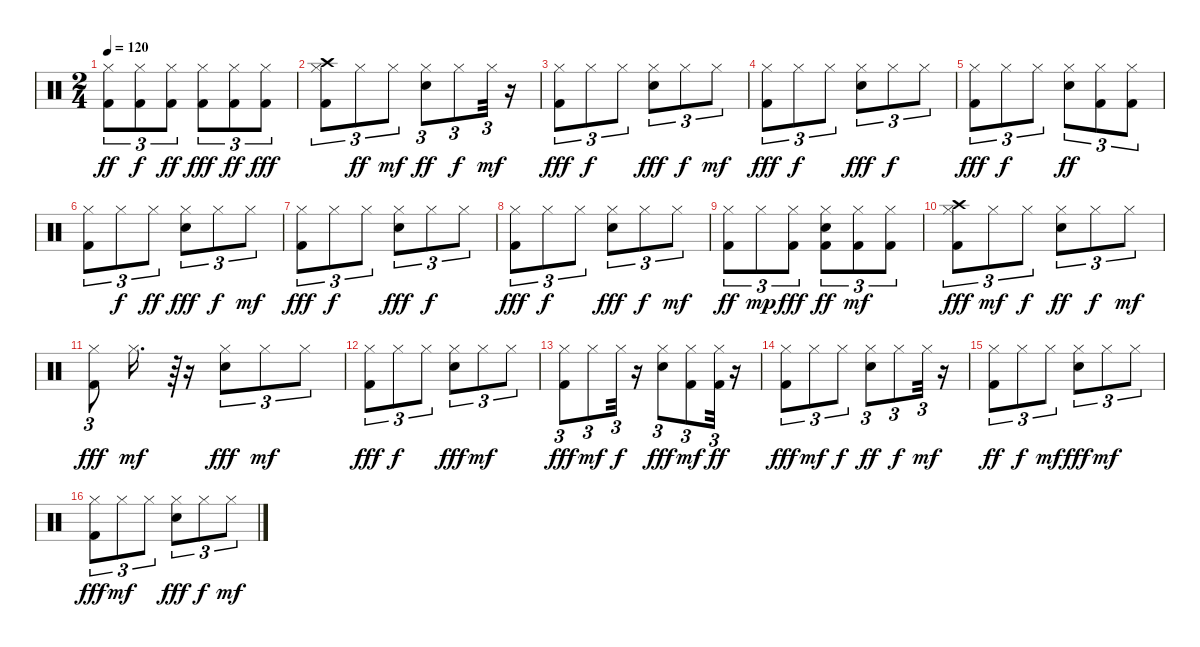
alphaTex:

\track "" {instrument percussion}
\staff {score}
\articulation defaults
\ts (2 4)
\tempo 120
\clef neutral
\ks c
("Kick (hit) 2" "Hi-Hat (closed)").8{tu (3 2) dy ff} ("Kick (hit) 2" "Hi-Hat (closed)").8{tu (3 2) dy f} ("Kick (hit) 2" "Hi-Hat (closed)").8{tu (3 2) dy ff} ("Kick (hit) 2" "Hi-Hat (closed)").8{tu (3 2) dy fff} ("Kick (hit) 2" "Hi-Hat (closed)").8{tu (3 2) dy ff} ("Hi-Hat (closed)" "Kick (hit) 2").8{tu (3 2) dy fff} |
("Crash high (hit)" "Hi-Hat (closed)" "Kick (hit) 2").8{tu (3 2)} "Hi-Hat (closed)".8{tu (3 2) dy ff} "Hi-Hat (closed)".8{tu (3 2) dy mf} ("Snare (hit) 2" "Hi-Hat (closed)").8{tu (3 2) dy ff} "Hi-Hat (closed)".8{tu (3 2) dy f} "Hi-Hat (closed)".32{tu (3 2) dy mf} r.16 |
("Hi-Hat (closed)" "Kick (hit) 2").8{tu (3 2) dy fff} "Hi-Hat (closed)".8{tu (3 2) dy f} "Hi-Hat (closed)".8{tu (3 2)} ("Snare (hit) 2" "Hi-Hat (closed)").8{tu (3 2) dy fff} "Hi-Hat (closed)".8{tu (3 2) dy f} "Hi-Hat (closed)".8{tu (3 2) dy mf} |
("Kick (hit) 2" "Hi-Hat (closed)").8{tu (3 2) dy fff} "Hi-Hat (closed)".8{tu (3 2) dy f} "Hi-Hat (closed)".8{tu (3 2)} ("Snare (hit) 2" "Hi-Hat (closed)").8{tu (3 2) dy fff} "Hi-Hat (closed)".8{tu (3 2) dy f} "Hi-Hat (closed)".8{tu (3 2)} |
("Hi-Hat (closed)" "Kick (hit) 2").8{tu (3 2) dy fff} "Hi-Hat (closed)".8{tu (3 2) dy f} "Hi-Hat (closed)".8{tu (3 2)} ("Snare (hit) 2" "Hi-Hat (closed)").8{tu (3 2) dy ff} ("Kick (hit) 2" "Hi-Hat (closed)").8{tu (3 2)} ("Hi-Hat (closed)" "Kick (hit) 2").8{tu (3 2)} |
("Kick (hit) 2" "Hi-Hat (closed)").8{tu (3 2)} "Hi-Hat (closed)".8{tu (3 2) dy f} "Hi-Hat (closed)".8{tu (3 2) dy ff} ("Snare (hit) 2" "Hi-Hat (closed)").8{tu (3 2) dy fff} "Hi-Hat (closed)".8{tu (3 2) dy f} "Hi-Hat (closed)".8{tu (3 2) dy mf} |
("Kick (hit) 2" "Hi-Hat (closed)").8{tu (3 2) dy fff} "Hi-Hat (closed)".8{tu (3 2) dy f} "Hi-Hat (closed)".8{tu (3 2)} ("Snare (hit) 2" "Hi-Hat (closed)").8{tu (3 2) dy fff} "Hi-Hat (closed)".8{tu (3 2) dy f} "Hi-Hat (closed)".8{tu (3 2)} |
("Kick (hit) 2" "Hi-Hat (closed)").8{tu (3 2) dy fff} "Hi-Hat (closed)".8{tu (3 2) dy f} "Hi-Hat (closed)".8{tu (3 2)} ("Snare (hit) 2" "Hi-Hat (closed)").8{tu (3 2) dy fff} "Hi-Hat (closed)".8{tu (3 2) dy f} "Hi-Hat (closed)".8{tu (3 2) dy mf} |
("Kick (hit) 2" "Hi-Hat (closed)").8{tu (3 2) dy ff} "Hi-Hat (closed)".8{tu (3 2) dy mp} ("Kick (hit) 2" "Hi-Hat (closed)").8{tu (3 2) dy fff} ("Snare (hit) 2" "Kick (hit) 2" "Hi-Hat (closed)").8{tu (3 2) dy ff} ("Kick (hit) 2" "Hi-Hat (closed)").8{tu (3 2) dy mf} ("Kick (hit) 2" "Hi-Hat (closed)").8{tu (3 2)} |
("Crash high (hit)" "Hi-Hat (closed)" "Kick (hit) 2").8{tu (3 2) dy fff} "Hi-Hat (closed)".8{tu (3 2) dy mf} "Hi-Hat (closed)".8{tu (3 2) dy f} ("Snare (hit) 2" "Hi-Hat (closed)").8{tu (3 2) dy ff} "Hi-Hat (closed)".8{tu (3 2) dy f} "Hi-Hat (closed)".8{tu (3 2) dy mf} |
("Kick (hit) 2" "Hi-Hat (closed)").8{tu (3 2) dy fff} "Hi-Hat (closed)".16{d dy mf} r.64{tu (3 2)} r.16 ("Snare (hit) 2" "Hi-Hat (closed)").8{tu (3 2) dy fff} "Hi-Hat (closed)".8{tu (3 2) dy mf} "Hi-Hat (closed)".8{tu (3 2)} |
("Kick (hit) 2" "Hi-Hat (closed)").8{tu (3 2) dy fff} "Hi-Hat (closed)".8{tu (3 2) dy f} "Hi-Hat (closed)".8{tu (3 2)} ("Hi-Hat (closed)" "Snare (hit) 2").8{tu (3 2) dy fff} "Hi-Hat (closed)".8{tu (3 2) dy mf} "Hi-Hat (closed)".8{tu (3 2)} |
("Kick (hit) 2" "Hi-Hat (closed)").8{tu (3 2) dy fff} "Hi-Hat (closed)".8{tu (3 2) dy mf} "Hi-Hat (closed)".32{tu (3 2) dy f} r.16 ("Snare (hit) 2" "Hi-Hat (closed)").8{tu (3 2) dy fff} ("Kick (hit) 2" "Hi-Hat (closed)").8{tu (3 2) dy mf} ("Hi-Hat (closed)" "Kick (hit) 2").32{tu (3 2) dy ff} r.16 |
("Kick (hit) 2" "Hi-Hat (closed)").8{tu (3 2) dy fff} "Hi-Hat (closed)".8{tu (3 2) dy mf} "Hi-Hat (closed)".8{tu (3 2) dy f} ("Snare (hit) 2" "Hi-Hat (closed)").8{tu (3 2) dy ff} "Hi-Hat (closed)".8{tu (3 2) dy f} "Hi-Hat (closed)".32{tu (3 2) dy mf} r.16 |
("Kick (hit) 2" "Hi-Hat (closed)").8{tu (3 2) dy ff} "Hi-Hat (closed)".8{tu (3 2) dy f} "Hi-Hat (closed)".8{tu (3 2) dy mf} ("Snare (hit) 2" "Hi-Hat (closed)").8{tu (3 2) dy fff} "Hi-Hat (closed)".8{tu (3 2) dy mf} "Hi-Hat (closed)".8{tu (3 2)} |
("Hi-Hat (closed)" "Kick (hit) 2").8{tu (3 2) dy fff} "Hi-Hat (closed)".8{tu (3 2) dy mf} "Hi-Hat (closed)".8{tu (3 2)} ("Hi-Hat (closed)" "Snare (hit) 2").8{tu (3 2) dy fff} "Hi-Hat (closed)".8{tu (3 2) dy f} "Hi-Hat (closed)".8{tu (3 2) dy mf}
